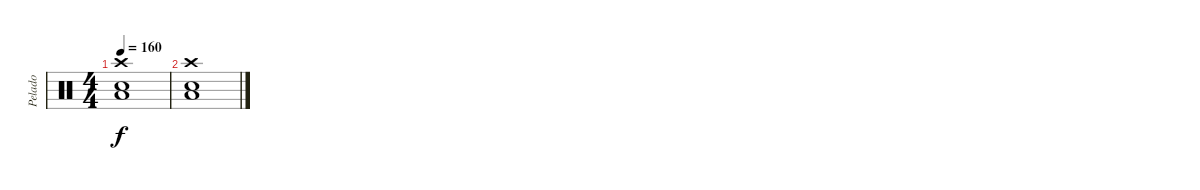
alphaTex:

\track ("Pelado" "Pelado") {instrument percussion}
\staff {score}
\articulation defaults
\ts (4 4)
\tempo 160
\clef neutral
\ks c
("Crash high (hit)"{t} "Snare (hit) 2"{t} "Low Tom (hit)"{t}).1{dy f} |
("Crash high (hit)" "Snare (hit) 2" "Low Tom (hit)").1
